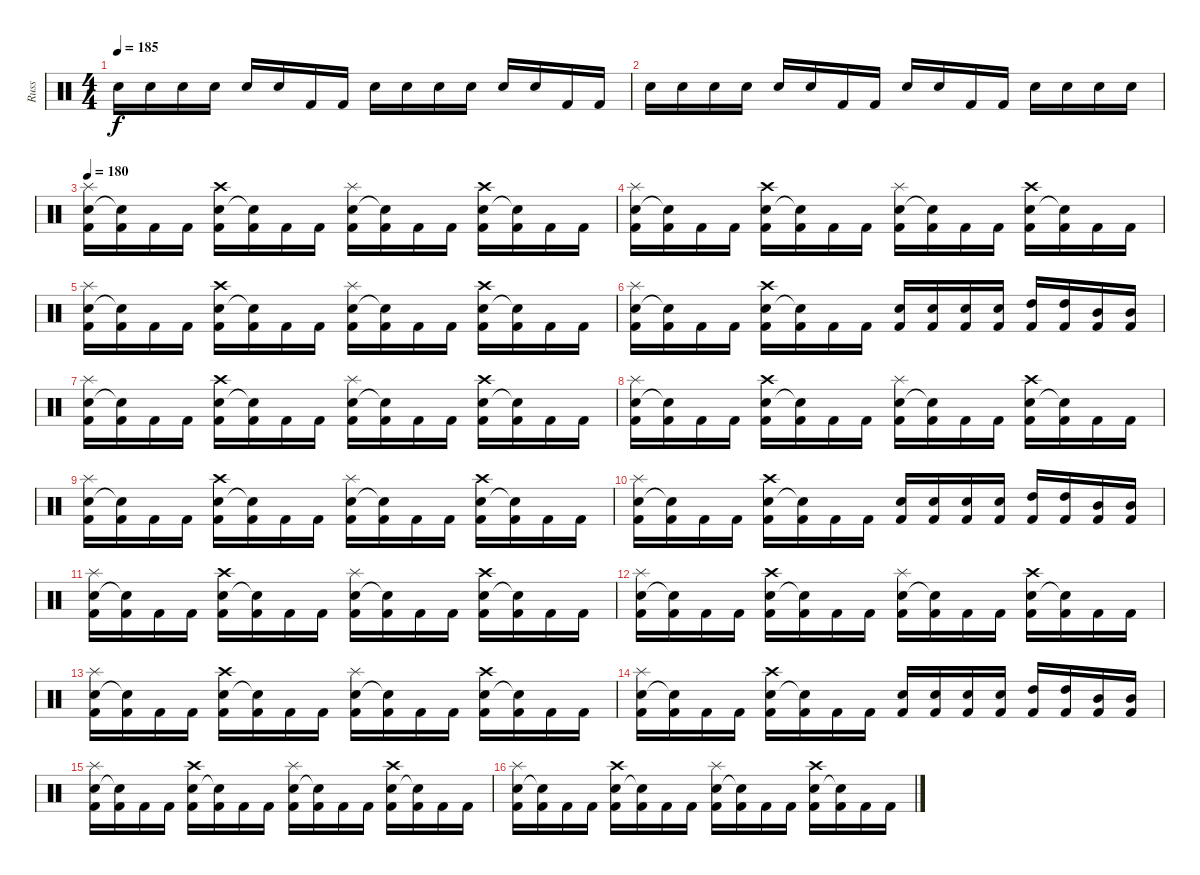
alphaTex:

\track ("Russ" "Russ") {instrument percussion}
\staff {score}
\articulation defaults
\ts (4 4)
\tempo 185
\clef neutral
\ks c "Snare (hit) 2".16{dy f} "Snare (hit) 2".16 "Snare (hit) 2".16 "Snare (hit) 2".16 "Snare (hit) 2".16 "Snare (hit) 2".16 "Kick (hit) 2".16 "Kick (hit) 2".16 "Snare (hit) 2".16 "Snare (hit) 2".16 "Snare (hit) 2".16 "Snare (hit) 2".16 "Snare (hit) 2".16 "Snare (hit) 2".16 "Kick (hit) 2".16 "Kick (hit) 2".16
|
"Snare (hit) 2".16 "Snare (hit) 2".16 "Snare (hit) 2".16 "Snare (hit) 2".16 "Snare (hit) 2".16 "Snare (hit) 2".16 "Kick (hit) 2".16 "Kick (hit) 2".16 "Snare (hit) 2".16 "Snare (hit) 2".16 "Kick (hit) 2".16 "Kick (hit) 2".16 "Snare (hit) 2".16 "Snare (hit) 2".16 "Snare (hit) 2".16 "Snare (hit) 2".16 |
\tempo 180
("Kick (hit) 2" "Snare (hit) 2" "Splash (hit)").16 ("Kick (hit) 2" "Snare (hit)"{t}).16 "Kick (hit) 2".16 "Kick (hit) 2".16 ("Kick (hit) 2" "Snare (hit) 2" "Crash high (hit)").16 ("Kick (hit) 2" "Snare (hit)"{t}).16 "Kick (hit) 2".16 "Kick (hit) 2".16 ("Kick (hit) 2" "Snare (hit) 2" "Splash (hit)").16 ("Kick (hit) 2" "Snare (hit)"{t}).16 "Kick (hit) 2".16 "Kick (hit) 2".16 ("Kick (hit) 2" "Snare (hit) 2" "Crash high (hit)").16 ("Kick (hit) 2" "Snare (hit)"{t}).16 "Kick (hit) 2".16 "Kick (hit) 2".16 |
("Kick (hit) 2" "Snare (hit) 2" "Splash (hit)").16 ("Kick (hit) 2" "Snare (hit)"{t}).16 "Kick (hit) 2".16 "Kick (hit) 2".16 ("Kick (hit) 2" "Snare (hit) 2" "Crash high (hit)").16 ("Kick (hit) 2" "Snare (hit)"{t}).16 "Kick (hit) 2".16 "Kick (hit) 2".16 ("Kick (hit) 2" "Snare (hit) 2" "Splash (hit)").16 ("Kick (hit) 2" "Snare (hit)"{t}).16 "Kick (hit) 2".16 "Kick (hit) 2".16 ("Kick (hit) 2" "Snare (hit) 2" "Crash high (hit)").16 ("Kick (hit) 2" "Snare (hit)"{t}).16 "Kick (hit) 2".16 "Kick (hit) 2".16 |
("Kick (hit) 2" "Snare (hit) 2" "Splash (hit)").16 ("Kick (hit) 2" "Snare (hit)"{t}).16 "Kick (hit) 2".16 "Kick (hit) 2".16 ("Kick (hit) 2" "Snare (hit) 2" "Crash high (hit)").16 ("Kick (hit) 2" "Snare (hit)"{t}).16 "Kick (hit) 2".16 "Kick (hit) 2".16 ("Kick (hit) 2" "Snare (hit) 2" "Splash (hit)").16 ("Kick (hit) 2" "Snare (hit)"{t}).16 "Kick (hit) 2".16 "Kick (hit) 2".16 ("Kick (hit) 2" "Snare (hit) 2" "Crash high (hit)").16 ("Kick (hit) 2" "Snare (hit)"{t}).16 "Kick (hit) 2".16 "Kick (hit) 2".16 |
("Kick (hit) 2" "Snare (hit) 2" "Splash (hit)").16 ("Kick (hit) 2" "Snare (hit)"{t}).16 "Kick (hit) 2".16 "Kick (hit) 2".16 ("Kick (hit) 2" "Snare (hit) 2" "Crash high (hit)").16 ("Kick (hit) 2" "Snare (hit)"{t}).16 "Kick (hit) 2".16 "Kick (hit) 2".16 ("Kick (hit) 2" "Snare (hit) 2").16 ("Kick (hit) 2" "Snare (hit) 2").16 ("Kick (hit) 2" "Snare (hit) 2").16 ("Kick (hit) 2" "Snare (hit) 2").16 ("Kick (hit) 2" "High Tom (hit)").16 ("Kick (hit) 2" "High Tom (hit)").16 ("Kick (hit) 2" "Mid Tom (hit)").16 ("Kick (hit) 2" "Mid Tom (hit)").16 |
("Kick (hit) 2" "Snare (hit) 2" "Splash (hit)").16 ("Kick (hit) 2" "Snare (hit)"{t}).16 "Kick (hit) 2".16 "Kick (hit) 2".16 ("Kick (hit) 2" "Snare (hit) 2" "Crash high (hit)").16 ("Kick (hit) 2" "Snare (hit)"{t}).16 "Kick (hit) 2".16 "Kick (hit) 2".16 ("Kick (hit) 2" "Snare (hit) 2" "Splash (hit)").16 ("Kick (hit) 2" "Snare (hit)"{t}).16 "Kick (hit) 2".16 "Kick (hit) 2".16 ("Kick (hit) 2" "Snare (hit) 2" "Crash high (hit)").16 ("Kick (hit) 2" "Snare (hit)"{t}).16 "Kick (hit) 2".16 "Kick (hit) 2".16 |
("Kick (hit) 2" "Snare (hit) 2" "Splash (hit)").16 ("Kick (hit) 2" "Snare (hit)"{t}).16 "Kick (hit) 2".16 "Kick (hit) 2".16 ("Kick (hit) 2" "Snare (hit) 2" "Crash high (hit)").16 ("Kick (hit) 2" "Snare (hit)"{t}).16 "Kick (hit) 2".16 "Kick (hit) 2".16 ("Kick (hit) 2" "Snare (hit) 2" "Splash (hit)").16 ("Kick (hit) 2" "Snare (hit)"{t}).16 "Kick (hit) 2".16 "Kick (hit) 2".16 ("Kick (hit) 2" "Snare (hit) 2" "Crash high (hit)").16 ("Kick (hit) 2" "Snare (hit)"{t}).16 "Kick (hit) 2".16 "Kick (hit) 2".16 |
("Kick (hit) 2" "Snare (hit) 2" "Splash (hit)").16 ("Kick (hit) 2" "Snare (hit)"{t}).16 "Kick (hit) 2".16 "Kick (hit) 2".16 ("Kick (hit) 2" "Snare (hit) 2" "Crash high (hit)").16 ("Kick (hit) 2" "Snare (hit)"{t}).16 "Kick (hit) 2".16 "Kick (hit) 2".16 ("Kick (hit) 2" "Snare (hit) 2" "Splash (hit)").16 ("Kick (hit) 2" "Snare (hit)"{t}).16 "Kick (hit) 2".16 "Kick (hit) 2".16 ("Kick (hit) 2" "Snare (hit) 2" "Crash high (hit)").16 ("Kick (hit) 2" "Snare (hit)"{t}).16 "Kick (hit) 2".16 "Kick (hit) 2".16 |
("Kick (hit) 2" "Snare (hit) 2" "Splash (hit)").16 ("Kick (hit) 2" "Snare (hit)"{t}).16 "Kick (hit) 2".16 "Kick (hit) 2".16 ("Kick (hit) 2" "Snare (hit) 2" "Crash high (hit)").16 ("Kick (hit) 2" "Snare (hit)"{t}).16 "Kick (hit) 2".16 "Kick (hit) 2".16 ("Kick (hit) 2" "Snare (hit) 2").16 ("Kick (hit) 2" "Snare (hit) 2").16 ("Kick (hit) 2" "Snare (hit) 2").16 ("Kick (hit) 2" "Snare (hit) 2").16 ("Kick (hit) 2" "High Tom (hit)").16 ("Kick (hit) 2" "High Tom (hit)").16 ("Kick (hit) 2" "Mid Tom (hit)").16 ("Kick (hit) 2" "Mid Tom (hit)").16 |
("Kick (hit) 2" "Snare (hit) 2" "Splash (hit)").16 ("Kick (hit) 2" "Snare (hit)"{t}).16 "Kick (hit) 2".16 "Kick (hit) 2".16 ("Kick (hit) 2" "Snare (hit) 2" "Crash high (hit)").16 ("Kick (hit) 2" "Snare (hit)"{t}).16 "Kick (hit) 2".16 "Kick (hit) 2".16 ("Kick (hit) 2" "Snare (hit) 2" "Splash (hit)").16 ("Kick (hit) 2" "Snare (hit)"{t}).16 "Kick (hit) 2".16 "Kick (hit) 2".16 ("Kick (hit) 2" "Snare (hit) 2" "Crash high (hit)").16 ("Kick (hit) 2" "Snare (hit)"{t}).16 "Kick (hit) 2".16 "Kick (hit) 2".16 |
("Kick (hit) 2" "Snare (hit) 2" "Splash (hit)").16 ("Kick (hit) 2" "Snare (hit)"{t}).16 "Kick (hit) 2".16 "Kick (hit) 2".16 ("Kick (hit) 2" "Snare (hit) 2" "Crash high (hit)").16 ("Kick (hit) 2" "Snare (hit)"{t}).16 "Kick (hit) 2".16 "Kick (hit) 2".16 ("Kick (hit) 2" "Snare (hit) 2" "Splash (hit)").16 ("Kick (hit) 2" "Snare (hit)"{t}).16 "Kick (hit) 2".16 "Kick (hit) 2".16 ("Kick (hit) 2" "Snare (hit) 2" "Crash high (hit)").16 ("Kick (hit) 2" "Snare (hit)"{t}).16 "Kick (hit) 2".16 "Kick (hit) 2".16 |
("Kick (hit) 2" "Snare (hit) 2" "Splash (hit)").16 ("Kick (hit) 2" "Snare (hit)"{t}).16 "Kick (hit) 2".16 "Kick (hit) 2".16 ("Kick (hit) 2" "Snare (hit) 2" "Crash high (hit)").16 ("Kick (hit) 2" "Snare (hit)"{t}).16 "Kick (hit) 2".16 "Kick (hit) 2".16 ("Kick (hit) 2" "Snare (hit) 2" "Splash (hit)").16 ("Kick (hit) 2" "Snare (hit)"{t}).16 "Kick (hit) 2".16 "Kick (hit) 2".16 ("Kick (hit) 2" "Snare (hit) 2" "Crash high (hit)").16 ("Kick (hit) 2" "Snare (hit)"{t}).16 "Kick (hit) 2".16 "Kick (hit) 2".16 |
("Kick (hit) 2" "Snare (hit) 2" "Splash (hit)").16 ("Kick (hit) 2" "Snare (hit)"{t}).16 "Kick (hit) 2".16 "Kick (hit) 2".16 ("Kick (hit) 2" "Snare (hit) 2" "Crash high (hit)").16 ("Kick (hit) 2" "Snare (hit)"{t}).16 "Kick (hit) 2".16 "Kick (hit) 2".16 ("Kick (hit) 2" "Snare (hit) 2").16 ("Kick (hit) 2" "Snare (hit) 2").16 ("Kick (hit) 2" "Snare (hit) 2").16 ("Kick (hit) 2" "Snare (hit) 2").16 ("Kick (hit) 2" "High Tom (hit)").16 ("Kick (hit) 2" "High Tom (hit)").16 ("Kick (hit) 2" "Mid Tom (hit)").16 ("Kick (hit) 2" "Mid Tom (hit)").16 |
("Kick (hit) 2" "Snare (hit) 2" "Splash (hit)").16 ("Kick (hit) 2" "Snare (hit)"{t}).16 "Kick (hit) 2".16 "Kick (hit) 2".16 ("Kick (hit) 2" "Snare (hit) 2" "Crash high (hit)").16 ("Kick (hit) 2" "Snare (hit)"{t}).16 "Kick (hit) 2".16 "Kick (hit) 2".16 ("Kick (hit) 2" "Snare (hit) 2" "Splash (hit)").16 ("Kick (hit) 2" "Snare (hit)"{t}).16 "Kick (hit) 2".16 "Kick (hit) 2".16 ("Kick (hit) 2" "Snare (hit) 2" "Crash high (hit)").16 ("Kick (hit) 2" "Snare (hit)"{t}).16 "Kick (hit) 2".16 "Kick (hit) 2".16 |
("Kick (hit) 2" "Snare (hit) 2" "Splash (hit)").16 ("Kick (hit) 2" "Snare (hit)"{t}).16 "Kick (hit) 2".16 "Kick (hit) 2".16 ("Kick (hit) 2" "Snare (hit) 2" "Crash high (hit)").16 ("Kick (hit) 2" "Snare (hit)"{t}).16 "Kick (hit) 2".16 "Kick (hit) 2".16 ("Kick (hit) 2" "Snare (hit) 2" "Splash (hit)").16 ("Kick (hit) 2" "Snare (hit)"{t}).16 "Kick (hit) 2".16 "Kick (hit) 2".16 ("Kick (hit) 2" "Snare (hit) 2" "Crash high (hit)").16 ("Kick (hit) 2" "Snare (hit)"{t}).16 "Kick (hit) 2".16 "Kick (hit) 2".16
